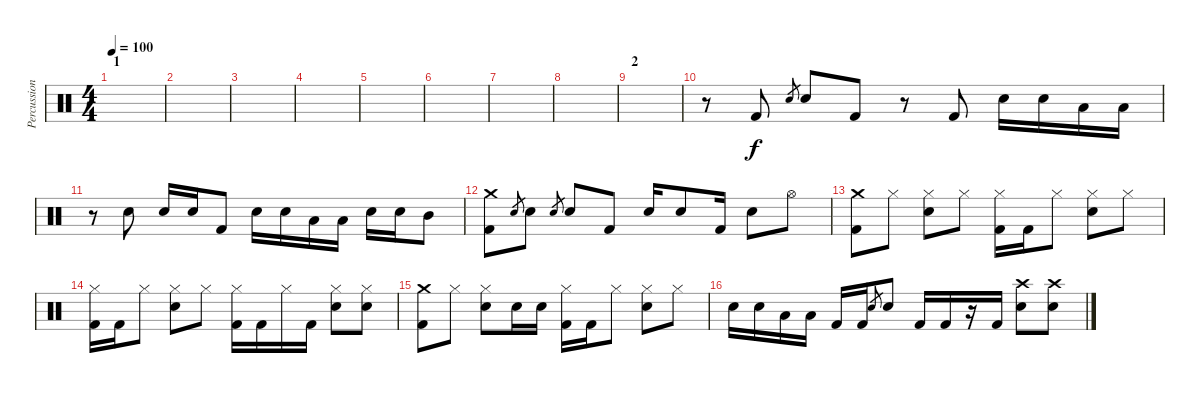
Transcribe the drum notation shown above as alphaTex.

\track ("Percussion" "Percussion") {instrument percussion}
\staff {score}
\articulation defaults
\ts (4 4)
\section ("" "1")
\tempo 100
\clef neutral
\ks c
|
|
|
|
|
|
|
|
\section ("" "2")
|
r.8 "Kick (hit) 2".8 "Electric Snare (hit)".8{gr} "Electric Snare (hit)".8 "Kick (hit) 2".8 r.8 "Kick (hit) 2".8 "Electric Snare (hit)".16 "Electric Snare (hit)".16 "Low Tom (hit)".16 "Low Tom (hit)".16 |
r.8 "Electric Snare (hit)".8 "Electric Snare (hit)".16 "Electric Snare (hit)".16 "Kick (hit) 2".8 "Electric Snare (hit)".16 "Electric Snare (hit)".16 "Low Tom (hit)".16 "Low Tom (hit)".16 "Electric Snare (hit)".16 "Electric Snare (hit)".16 "Mid Tom (hit)".8 |
("Crash medium (hit)" "Kick (hit) 2").8 "Electric Snare (hit)".8{gr} "Electric Snare (hit)".8 "Electric Snare (hit)".8{gr} "Electric Snare (hit)".8 "Kick (hit) 2".8 "Electric Snare (hit)".16 "Electric Snare (hit)".8 "Kick (hit) 2".16 "Electric Snare (hit)".8 "Hi-Hat (open)".8 |
("Crash medium (hit)" "Kick (hit) 2").8 "Hi-Hat (closed)".8 ("Hi-Hat (closed)" "Electric Snare (hit)").8 "Hi-Hat (closed)".8 ("Hi-Hat (closed)" "Kick (hit) 2").16 "Kick (hit) 2".16 "Hi-Hat (closed)".8 ("Hi-Hat (closed)" "Electric Snare (hit)").8 "Hi-Hat (closed)".8 |
("Hi-Hat (closed)" "Kick (hit) 2").16 "Kick (hit) 2".16 "Hi-Hat (closed)".8 ("Hi-Hat (closed)" "Electric Snare (hit)").8 "Hi-Hat (closed)".8 ("Hi-Hat (closed)" "Kick (hit) 2").16 "Kick (hit) 2".16 "Hi-Hat (closed)".16 "Kick (hit) 2".16 ("Hi-Hat (closed)" "Electric Snare (hit)").8 ("Hi-Hat (closed)" "Electric Snare (hit)").8 |
("Crash medium (hit)" "Kick (hit) 2").8 "Hi-Hat (closed)".8 ("Hi-Hat (closed)" "Electric Snare (hit)").8 "Electric Snare (hit)".16 "Electric Snare (hit)".16 ("Hi-Hat (closed)" "Kick (hit) 2").16 "Kick (hit) 2".16 "Hi-Hat (closed)".8 ("Hi-Hat (closed)" "Electric Snare (hit)").8 "Hi-Hat (closed)".8 |
"Electric Snare (hit)".16 "Electric Snare (hit)".16 "Low Tom (hit)".16 "Low Tom (hit)".16 "Kick (hit) 2".16 "Kick (hit) 2".16 "Electric Snare (hit)".8{gr} "Electric Snare (hit)".8 "Kick (hit) 2".16 "Kick (hit) 2".16 r.16 "Kick (hit) 2".16 ("Crash high (hit)" "Electric Snare (hit)").8 ("Crash high (hit)" "Electric Snare (hit)").8
